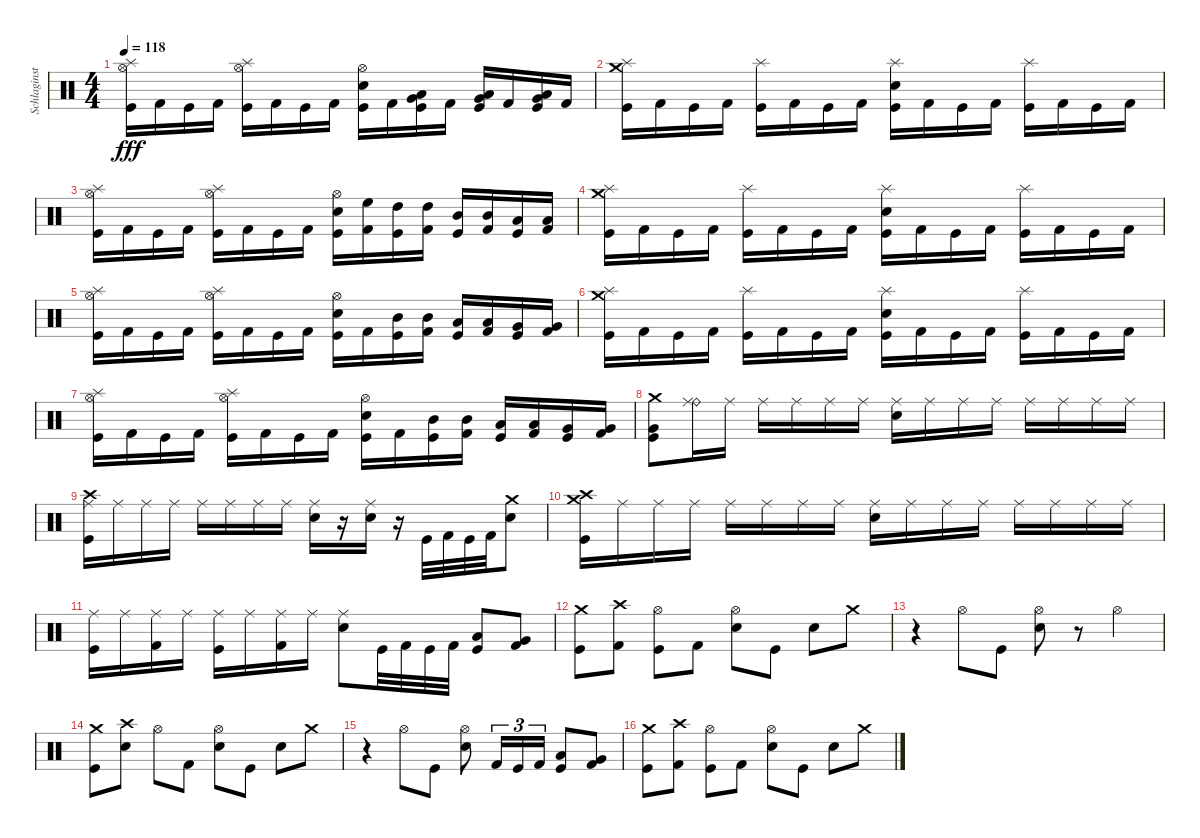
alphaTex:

\track ("Schlaginstrumente - Auswahl" "Schlaginst") {instrument percussion}
\staff {score}
\articulation defaults
\ts (4 4)
\tempo 118
\clef neutral
\ks c
("Hi-Hat (open)" "Splash (hit)" "Kick (hit)").16{dy fff} "Kick (hit) 2".16 "Kick (hit)".16 "Kick (hit) 2".16 ("Hi-Hat (open)" "Splash (hit)" "Kick (hit)").16 "Kick (hit) 2".16 "Kick (hit)".16 "Kick (hit) 2".16 ("Hi-Hat (open)" "Snare (hit) 2" "Kick (hit)").16 "Kick (hit) 2".16 ("Very Low Tom (hit)" "Low Tom (hit)" "Kick (hit)").16 "Kick (hit) 2".16 ("Very Low Tom (hit)" "Low Tom (hit)" "Kick (hit)").16 "Kick (hit) 2".16 ("Very Low Tom (hit)" "Low Tom (hit)" "Kick (hit)").16 "Kick (hit) 2".16 |
("Splash (hit)" "Crash medium (hit)" "Kick (hit)").16 "Kick (hit) 2".16 "Kick (hit)".16 "Kick (hit) 2".16 ("Splash (hit)" "Kick (hit)").16 "Kick (hit) 2".16 "Kick (hit)".16 "Kick (hit) 2".16 ("Splash (hit)" "Snare (hit) 2" "Kick (hit)").16 "Kick (hit) 2".16 "Kick (hit)".16 "Kick (hit) 2".16 ("Splash (hit)" "Kick (hit)").16 "Kick (hit) 2".16 "Kick (hit)".16 "Kick (hit) 2".16 |
("Hi-Hat (open)" "Splash (hit)" "Kick (hit)").16 "Kick (hit) 2".16 "Kick (hit)".16 "Kick (hit) 2".16 ("Hi-Hat (open)" "Splash (hit)" "Kick (hit)").16 "Kick (hit) 2".16 "Kick (hit)".16 "Kick (hit) 2".16 ("Hi-Hat (open)" "Snare (hit) 2" "Kick (hit)").16 ("High Floor Tom (hit)" "Kick (hit) 2").16 ("High Tom (hit)" "Kick (hit)").16 ("High Tom (hit)" "Kick (hit) 2").16 ("Mid Tom (hit)" "Kick (hit)").16 ("Mid Tom (hit)" "Kick (hit) 2").16 ("Low Tom (hit)" "Kick (hit)").16 ("Low Tom (hit)" "Kick (hit) 2").16 |
("Splash (hit)" "Crash medium (hit)" "Kick (hit)").16 "Kick (hit) 2".16 "Kick (hit)".16 "Kick (hit) 2".16 ("Splash (hit)" "Kick (hit)").16 "Kick (hit) 2".16 "Kick (hit)".16 "Kick (hit) 2".16 ("Splash (hit)" "Snare (hit) 2" "Kick (hit)").16 "Kick (hit) 2".16 "Kick (hit)".16 "Kick (hit) 2".16 ("Splash (hit)" "Kick (hit)").16 "Kick (hit) 2".16 "Kick (hit)".16 "Kick (hit) 2".16 |
("Hi-Hat (open)" "Splash (hit)" "Kick (hit)").16 "Kick (hit) 2".16 "Kick (hit)".16 "Kick (hit) 2".16 ("Hi-Hat (open)" "Splash (hit)" "Kick (hit)").16 "Kick (hit) 2".16 "Kick (hit)".16 "Kick (hit) 2".16 ("Hi-Hat (open)" "Snare (hit) 2" "Kick (hit)").16 "Kick (hit) 2".16 ("Mid Tom (hit)" "Kick (hit)").16 ("Mid Tom (hit)" "Kick (hit) 2").16 ("Low Tom (hit)" "Kick (hit)").16 ("Low Tom (hit)" "Kick (hit) 2").16 ("Very Low Tom (hit)" "Kick (hit)").16 ("Very Low Tom (hit)" "Kick (hit) 2").16 |
("Splash (hit)" "Crash medium (hit)" "Kick (hit)").16 "Kick (hit) 2".16 "Kick (hit)".16 "Kick (hit) 2".16 ("Splash (hit)" "Kick (hit)").16 "Kick (hit) 2".16 "Kick (hit)".16 "Kick (hit) 2".16 ("Splash (hit)" "Snare (hit) 2" "Kick (hit)").16 "Kick (hit) 2".16 "Kick (hit)".16 "Kick (hit) 2".16 ("Splash (hit)" "Kick (hit)").16 "Kick (hit) 2".16 "Kick (hit)".16 "Kick (hit) 2".16 |
("Hi-Hat (open)" "Splash (hit)" "Kick (hit)").16 "Kick (hit) 2".16 "Kick (hit)".16 "Kick (hit) 2".16 ("Hi-Hat (open)" "Splash (hit)" "Kick (hit)").16 "Kick (hit) 2".16 "Kick (hit)".16 "Kick (hit) 2".16 ("Hi-Hat (open)" "Snare (hit) 2" "Kick (hit)").16 "Kick (hit) 2".16 ("Mid Tom (hit)" "Kick (hit)").16 ("Mid Tom (hit)" "Kick (hit) 2").16 ("Low Tom (hit)" "Kick (hit)").16 ("Low Tom (hit)" "Kick (hit) 2").16 ("Very Low Tom (hit)" "Kick (hit)").16 ("Very Low Tom (hit)" "Kick (hit) 2").16 |
("Crash medium (hit)" "Very Low Tom (hit)" "Kick (hit)").8 ("Ride (bell)" "Ride (middle)").16 "Ride (middle)".16 "Ride (middle)".16 "Ride (middle)".16 "Ride (middle)".16 "Ride (middle)".16 ("Ride (middle)" "Snare (hit) 2").16 "Ride (middle)".16 "Ride (middle)".16 "Ride (middle)".16 "Ride (middle)".16 "Ride (middle)".16 "Ride (middle)".16 "Ride (middle)".16 |
("Crash high (hit)" "Ride (middle)" "Kick (hit)").16 "Ride (middle)".16 "Ride (middle)".16 "Ride (middle)".16 "Ride (middle)".16 "Ride (middle)".16 "Ride (middle)".16 "Ride (middle)".16 ("Ride (middle)" "Snare (hit) 2").16 r.16 ("Ride (middle)" "Snare (hit) 2").16 r.16 "Kick (hit)".32 "Kick (hit) 2".32 "Kick (hit)".32 "Kick (hit) 2".32 ("Crash medium (hit)" "Snare (hit) 2").8 |
("Crash high (hit)" "Crash medium (hit)" "Kick (hit)").16 "Ride (middle)".16 "Ride (middle)".16 "Ride (middle)".16 "Ride (middle)".16 "Ride (middle)".16 "Ride (middle)".16 "Ride (middle)".16 ("Ride (middle)" "Snare (hit) 2").16 "Ride (middle)".16 "Ride (middle)".16 "Ride (middle)".16 "Ride (middle)".16 "Ride (middle)".16 "Ride (middle)".16 "Ride (middle)".16 |
("Ride (middle)" "Kick (hit)").16 "Ride (middle)".16 ("Ride (middle)" "Kick (hit) 2").16 "Ride (middle)".16 ("Ride (middle)" "Kick (hit)").16 "Ride (middle)".16 ("Ride (middle)" "Kick (hit) 2").16 "Ride (middle)".16 ("Ride (middle)" "Snare (hit) 2").8 "Kick (hit)".32 "Kick (hit) 2".32 "Kick (hit)".32 "Kick (hit) 2".32 ("Low Tom (hit)" "Kick (hit)").8 ("Very Low Tom (hit)" "Kick (hit) 2").8 |
("Crash medium (hit)" "Kick (hit)").8 ("Crash high (hit)" "Kick (hit) 2").8 ("Hi-Hat (open)" "Kick (hit)").8 "Kick (hit) 2".8 ("Hi-Hat (open)" "Snare (hit) 2").8 "Kick (hit)".8 "Snare (hit) 2".8 "Crash medium (hit)".8 |
r.4 "Hi-Hat (open)".8 "Kick (hit)".8 ("Hi-Hat (open)" "Snare (hit) 2").8 r.8 "Hi-Hat (open)".4 |
("Crash medium (hit)" "Kick (hit)").8 ("Crash high (hit)" "Snare (hit) 2").8 "Hi-Hat (open)".8 "Kick (hit) 2".8 ("Hi-Hat (open)" "Snare (hit) 2").8 "Kick (hit)".8 "Snare (hit) 2".8 "Crash medium (hit)".8 |
r.4 "Hi-Hat (open)".8 "Kick (hit)".8 ("Hi-Hat (open)" "Snare (hit) 2").8 "Kick (hit) 2".16{tu (3 2)} "Kick (hit)".16{tu (3 2)} "Kick (hit) 2".16{tu (3 2)} ("Low Tom (hit)" "Kick (hit)").8 ("Very Low Tom (hit)" "Kick (hit) 2").8 |
("Crash medium (hit)" "Kick (hit)").8 ("Crash high (hit)" "Kick (hit) 2").8 ("Hi-Hat (open)" "Kick (hit)").8 "Kick (hit) 2".8 ("Hi-Hat (open)" "Snare (hit) 2").8 "Kick (hit)".8 "Snare (hit) 2".8 "Crash medium (hit)".8
